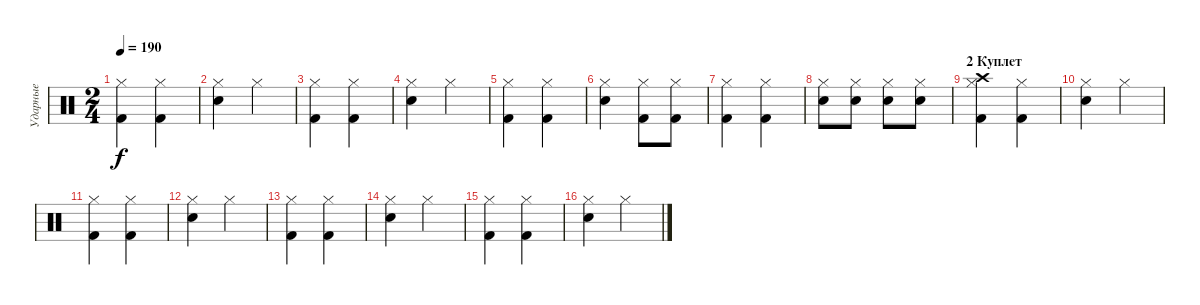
\track ("Ударные" "Ударные") {instrument percussion}
\staff {score}
\articulation defaults
\ts (2 4)
\tempo 190
\clef neutral
\ks c
("Hi-Hat (closed)" "Kick (hit) 2").4{dy f} ("Hi-Hat (closed)" "Kick (hit) 2").4 |
("Hi-Hat (closed)" "Snare (hit) 2").4 "Hi-Hat (closed)".4 |
("Hi-Hat (closed)" "Kick (hit) 2").4 ("Hi-Hat (closed)" "Kick (hit) 2").4 |
("Hi-Hat (closed)" "Snare (hit) 2").4 "Hi-Hat (closed)".4 |
("Hi-Hat (closed)" "Kick (hit) 2").4 ("Hi-Hat (closed)" "Kick (hit) 2").4 |
("Hi-Hat (closed)" "Snare (hit) 2").4 ("Hi-Hat (closed)" "Kick (hit) 2").8 ("Hi-Hat (closed)" "Kick (hit) 2").8 |
("Hi-Hat (closed)" "Kick (hit) 2").4 ("Hi-Hat (closed)" "Kick (hit) 2").4 |
("Hi-Hat (closed)" "Snare (hit) 2").8 ("Hi-Hat (closed)" "Snare (hit) 2").8 ("Hi-Hat (closed)" "Snare (hit) 2").8 ("Hi-Hat (closed)" "Snare (hit) 2").8 |
\section ("" "2 Куплет")
("Hi-Hat (closed)" "Kick (hit) 2" "Crash high (hit)").4 ("Hi-Hat (closed)" "Kick (hit) 2").4 |
("Hi-Hat (closed)" "Snare (hit) 2").4 "Hi-Hat (closed)".4 |
("Hi-Hat (closed)" "Kick (hit) 2").4 ("Hi-Hat (closed)" "Kick (hit) 2").4 |
("Hi-Hat (closed)" "Snare (hit) 2").4 "Hi-Hat (closed)".4 |
("Hi-Hat (closed)" "Kick (hit) 2").4 ("Hi-Hat (closed)" "Kick (hit) 2").4 |
("Hi-Hat (closed)" "Snare (hit) 2").4 "Hi-Hat (closed)".4 |
("Hi-Hat (closed)" "Kick (hit) 2").4 ("Hi-Hat (closed)" "Kick (hit) 2").4 |
("Hi-Hat (closed)" "Snare (hit) 2").4 "Hi-Hat (closed)".4
